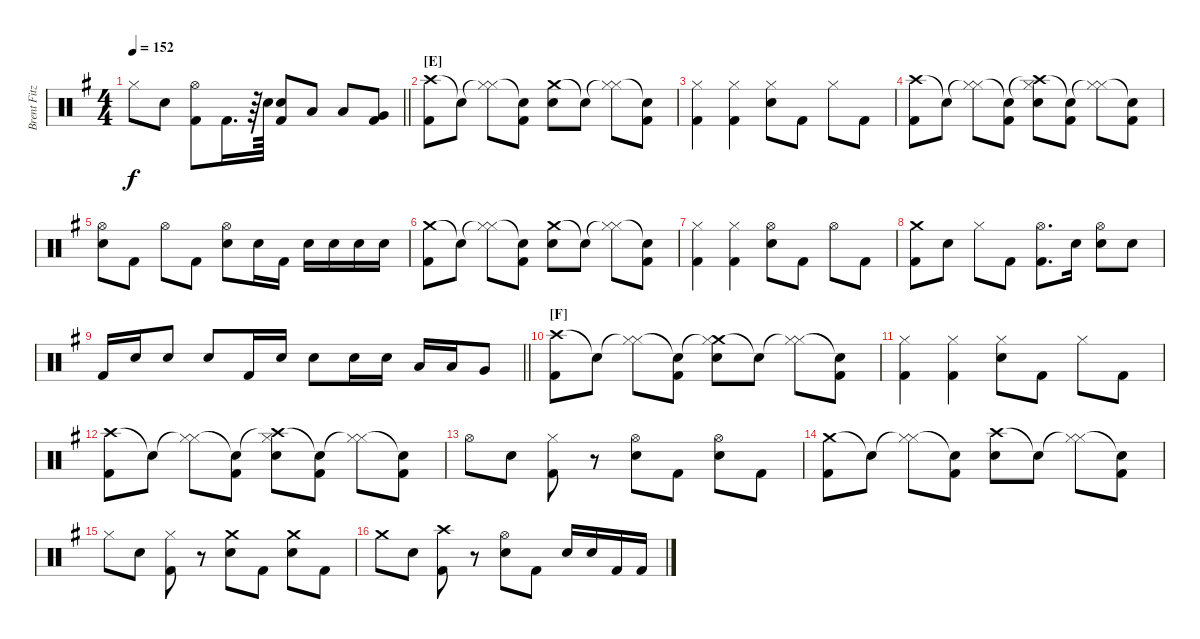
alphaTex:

\track ("Brent Fitz" "Brent Fitz") {instrument percussion}
\staff {score}
\articulation defaults
\ts (4 4)
\tempo 152
\clef neutral
\barLineRight lightlight
\ks eminor "Hi-Hat (closed)".8{dy f} "Snare (hit) 2".8
("Hi-Hat (open)" "Kick (hit) 2").8 "Kick (hit) 2".16{d} r.64 "Snare (hit) 2".64 ("Snare (hit) 2" "Kick (hit) 2").8 "Low Tom (hit)".8 "Low Tom (hit)".8 ("Very Low Tom (hit)" "Kick (hit) 2").8 |
\section ("" "[E]")
("Crash high (hit)" "Kick (hit) 2").8 "Snare (hit)"{t}.8 ("Hi-Hat (closed)"{t} "Hi-Hat (closed)").8 ("Snare (hit)"{t} "Kick (hit) 2").8 ("Crash medium (hit)" "Snare (hit) 2").8 "Snare (hit)"{t}.8 ("Hi-Hat (closed)"{t} "Hi-Hat (closed)").8 ("Snare (hit)"{t} "Kick (hit) 2").8 |
("Hi-Hat (closed)" "Kick (hit) 2").4 ("Hi-Hat (closed)" "Kick (hit) 2").4 ("Hi-Hat (closed)" "Snare (hit) 2").8 "Kick (hit) 2".8 "Hi-Hat (closed)".8 "Kick (hit) 2".8 |
("Crash high (hit)" "Kick (hit) 2").8 "Snare (hit)"{t}.8 ("Hi-Hat (closed)"{t} "Hi-Hat (closed)").8 ("Snare (hit)"{t} "Kick (hit) 2").8 ("Crash high (hit)"{t} "Hi-Hat (closed)" "Snare (hit) 2").8 ("Snare (hit)"{t} "Kick (hit) 2").8 ("Hi-Hat (closed)"{t} "Hi-Hat (closed)").8 ("Snare (hit)"{t} "Kick (hit) 2").8 |
("Hi-Hat (open)" "Snare (hit) 2").8 "Kick (hit) 2".8 "Hi-Hat (open)".8 "Kick (hit) 2".8 ("Hi-Hat (open)" "Snare (hit) 2").8 "Snare (hit) 2".16 "Kick (hit) 2".16 "Snare (hit) 2".16 "Snare (hit) 2".16 "Snare (hit) 2".16 "Snare (hit) 2".16 |
("Crash medium (hit)" "Kick (hit) 2").8 "Snare (hit)"{t}.8 ("Hi-Hat (closed)"{t} "Hi-Hat (closed)").8 ("Snare (hit)"{t} "Kick (hit) 2").8 ("Crash medium (hit)" "Snare (hit) 2").8 "Snare (hit)"{t}.8 ("Hi-Hat (closed)"{t} "Hi-Hat (closed)").8 ("Snare (hit)"{t} "Kick (hit) 2").8 |
("Hi-Hat (closed)" "Kick (hit) 2").4 ("Hi-Hat (closed)" "Kick (hit) 2").4 ("Hi-Hat (open)" "Snare (hit) 2").8 "Kick (hit) 2".8 "Hi-Hat (open)".8 "Kick (hit) 2".8 |
("Crash medium (hit)" "Kick (hit) 2").8 "Snare (hit) 2".8 "Hi-Hat (closed)".8 "Kick (hit) 2".8 ("Hi-Hat (open)" "Kick (hit) 2").8{d} "Snare (hit) 2".16 ("Hi-Hat (open)" "Snare (hit) 2").8 "Snare (hit) 2".8 |
\barLineRight lightlight "Kick (hit) 2".16 "Snare (hit) 2".16 "Snare (hit) 2".8 "Snare (hit) 2".8 "Kick (hit) 2".16 "Snare (hit) 2".16 "Snare (hit) 2".8 "Snare (hit) 2".16 "Snare (hit) 2".16 "Low Tom (hit)".16 "Low Tom (hit)".16 "Very Low Tom (hit)".8
|
\section ("" "[F]")
("Crash high (hit)" "Kick (hit) 2").8 "Snare (hit)"{t}.8 ("Hi-Hat (closed)"{t} "Hi-Hat (closed)").8 ("Snare (hit)"{t} "Kick (hit) 2").8 ("Crash medium (hit)"{t} "Hi-Hat (closed)" "Snare (hit) 2").8 "Snare (hit)"{t}.8 ("Hi-Hat (closed)"{t} "Hi-Hat (closed)").8 ("Snare (hit)"{t} "Kick (hit) 2").8 |
("Hi-Hat (closed)" "Kick (hit) 2").4 ("Hi-Hat (closed)" "Kick (hit) 2").4 ("Hi-Hat (closed)" "Snare (hit) 2").8 "Kick (hit) 2".8 "Hi-Hat (closed)".8 "Kick (hit) 2".8 |
("Crash high (hit)" "Kick (hit) 2").8 "Snare (hit)"{t}.8 ("Hi-Hat (closed)"{t} "Hi-Hat (closed)").8 ("Snare (hit)"{t} "Kick (hit) 2").8 ("Crash high (hit)"{t} "Hi-Hat (closed)" "Snare (hit) 2").8 ("Snare (hit)"{t} "Kick (hit) 2").8 ("Hi-Hat (closed)"{t} "Hi-Hat (closed)").8 ("Snare (hit)"{t} "Kick (hit) 2").8 |
"Hi-Hat (open)".8 "Snare (hit) 2".8 ("Hi-Hat (closed)" "Kick (hit) 2").8 r.8 ("Hi-Hat (open)" "Snare (hit) 2").8 "Kick (hit) 2".8 ("Hi-Hat (open)" "Snare (hit) 2").8 "Kick (hit) 2".8 |
("Crash medium (hit)" "Kick (hit) 2").8 "Snare (hit)"{t}.8 ("Hi-Hat (closed)"{t} "Hi-Hat (closed)").8 ("Snare (hit)"{t} "Kick (hit) 2").8 ("Crash high (hit)" "Snare (hit) 2").8 "Snare (hit)"{t}.8 ("Hi-Hat (closed)"{t} "Hi-Hat (closed)").8 ("Snare (hit)"{t} "Kick (hit) 2").8 |
"Hi-Hat (closed)".8 "Snare (hit) 2".8 ("Hi-Hat (closed)" "Kick (hit) 2").8 r.8 ("Crash medium (hit)" "Snare (hit) 2").8 "Kick (hit) 2".8 ("Crash medium (hit)" "Snare (hit) 2").8 "Kick (hit) 2".8 |
"Crash medium (hit)".8 "Snare (hit) 2".8 ("Crash high (hit)" "Kick (hit) 2").8 r.8 ("Hi-Hat (open)" "Snare (hit) 2").8 "Kick (hit) 2".8 "Snare (hit) 2".16 "Snare (hit) 2".16 "Kick (hit) 2".16 "Kick (hit) 2".16
